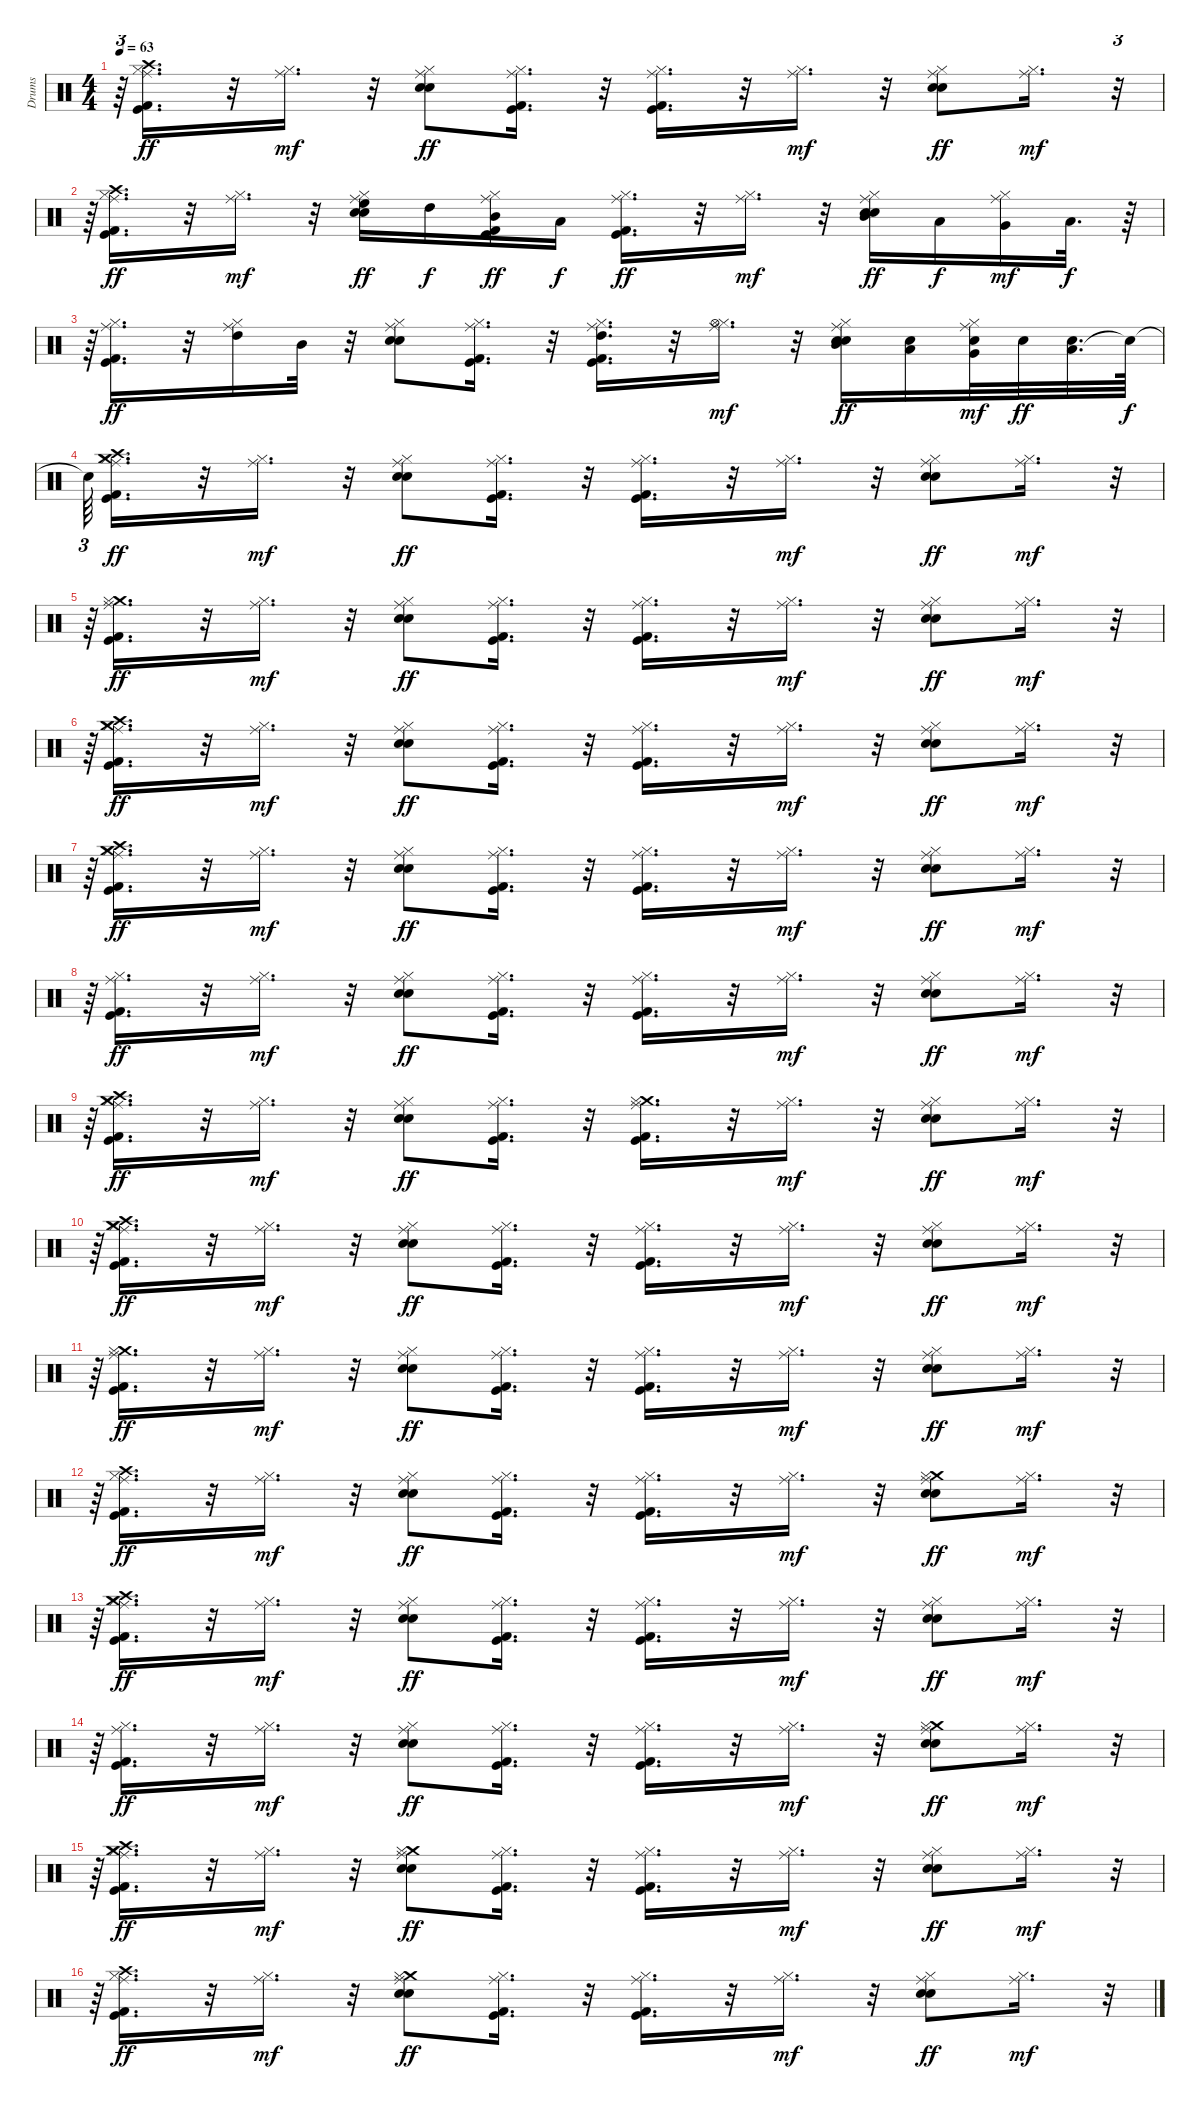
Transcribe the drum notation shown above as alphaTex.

\track ("Drums" "Drums") {instrument percussion}
\staff {score}
\articulation defaults
\ts (4 4)
\tempo 63
\clef neutral
\ks c
r.64{tu (3 2) dy mf} ("Hi-Hat (closed)" "Kick (hit) 2" "Crash high (hit)" "Ride (middle)" "Kick (hit)").16{d dy ff} r.32 ("Hi-Hat (closed)" "Ride (middle)").16{d dy mf} r.32 ("Snare (hit) 2" "Hi-Hat (closed)" "Ride (middle)" "Snare (hit) 2").8{dy ff} ("Hi-Hat (closed)" "Kick (hit) 2" "Ride (middle)" "Kick (hit)").16{d} r.32 ("Hi-Hat (closed)" "Kick (hit) 2" "Ride (middle)" "Kick (hit)").16{d} r.32 ("Hi-Hat (closed)" "Ride (middle)").16{d dy mf} r.32 ("Snare (hit) 2" "Hi-Hat (closed)" "Ride (middle)" "Snare (hit) 2").8{dy ff} ("Hi-Hat (closed)" "Ride (middle)").16{d dy mf} r.32{tu (3 2)} |
r.64{tu (3 2)} ("Hi-Hat (closed)" "Kick (hit) 2" "Crash high (hit)" "Ride (middle)" "Kick (hit)").16{d dy ff} r.32 ("Hi-Hat (closed)" "Ride (middle)").16{d dy mf} r.32 ("High Floor Tom (hit)" "Snare (hit) 2" "Hi-Hat (closed)" "Ride (middle)" "Snare (hit) 2").16{dy ff} "High Tom (hit)".16{dy f} ("Mid Tom (hit)" "Hi-Hat (closed)" "Kick (hit) 2" "Ride (middle)" "Kick (hit)").16{dy ff} "Low Tom (hit)".16{dy f} ("Hi-Hat (closed)" "Kick (hit) 2" "Ride (middle)" "Kick (hit)").16{d dy ff} r.32 ("Hi-Hat (closed)" "Ride (middle)").16{d dy mf} r.32 ("Mid Tom (hit)" "Snare (hit) 2" "Hi-Hat (closed)" "Ride (middle)" "Snare (hit) 2").16{dy ff} "Low Tom (hit)".16{dy f} ("Very Low Tom (hit)" "Hi-Hat (closed)" "Ride (middle)").16{dy mf} "Low Floor Tom (hit)".32{d dy f} r.64 |
r.64{tu (3 2)} ("Hi-Hat (closed)" "Kick (hit) 2" "Ride (middle)" "Kick (hit)").16{d dy ff} r.32 ("Hi-Hat (closed)" "Ride (middle)" "High Tom (hit)").16 "Mid Tom (hit)".32 r.32 ("Snare (hit) 2" "Hi-Hat (closed)" "Ride (middle)" "Snare (hit) 2").8 ("Hi-Hat (closed)" "Kick (hit) 2" "Ride (middle)" "Kick (hit)").16{d} r.32 ("High Tom (hit)" "Hi-Hat (closed)" "Kick (hit) 2" "Ride (middle)" "Kick (hit)").16{d} r.32 ("Hi-Hat (closed)" "Hi-Hat (open)" "Ride (middle)").16{d dy mf} r.32 ("Mid Tom (hit)" "Snare (hit) 2" "Hi-Hat (closed)" "Ride (middle)" "Snare (hit) 2").16{dy ff} ("Low Tom (hit)" "Snare (hit) 2").16 ("Very Low Tom (hit)" "Hi-Hat (closed)" "Snare (hit) 2" "Ride (middle)").32{dy mf} "Snare (hit) 2".32{dy ff} ("Low Floor Tom (hit)" "Snare (hit) 2").32{d} "Snare (hit)"{t}.64{dy f} |
"Snare (hit)"{t}.64{tu (3 2)} ("Crash medium (hit)" "Hi-Hat (closed)" "Kick (hit) 2" "Crash high (hit)" "Ride (middle)" "Kick (hit)").16{d dy ff} r.32 ("Hi-Hat (closed)" "Ride (middle)").16{d dy mf} r.32 ("Snare (hit) 2" "Hi-Hat (closed)" "Ride (middle)" "Snare (hit) 2").8{dy ff} ("Hi-Hat (closed)" "Kick (hit) 2" "Ride (middle)" "Kick (hit)").16{d} r.32 ("Hi-Hat (closed)" "Kick (hit) 2" "Ride (middle)" "Kick (hit)").16{d} r.32 ("Hi-Hat (closed)" "Ride (middle)").16{d dy mf} r.32 ("Snare (hit) 2" "Hi-Hat (closed)" "Ride (middle)" "Snare (hit) 2").8{dy ff} ("Hi-Hat (closed)" "Ride (middle)").16{d dy mf} r.32{tu (3 2)} |
r.64{tu (3 2)} ("Crash medium (hit)" "Hi-Hat (closed)" "Kick (hit) 2" "Ride (middle)" "Kick (hit)").16{d dy ff} r.32 ("Hi-Hat (closed)" "Ride (middle)").16{d dy mf} r.32 ("Snare (hit) 2" "Hi-Hat (closed)" "Ride (middle)" "Snare (hit) 2").8{dy ff} ("Hi-Hat (closed)" "Kick (hit) 2" "Ride (middle)" "Kick (hit)").16{d} r.32 ("Hi-Hat (closed)" "Kick (hit) 2" "Ride (middle)" "Kick (hit)").16{d} r.32 ("Hi-Hat (closed)" "Ride (middle)").16{d dy mf} r.32 ("Snare (hit) 2" "Hi-Hat (closed)" "Ride (middle)" "Snare (hit) 2").8{dy ff} ("Hi-Hat (closed)" "Ride (middle)").16{d dy mf} r.32{tu (3 2)} |
r.64{tu (3 2)} ("Crash medium (hit)" "Hi-Hat (closed)" "Kick (hit) 2" "Ride (middle)" "Kick (hit)" "Crash high (hit)").16{d dy ff} r.32 ("Hi-Hat (closed)" "Ride (middle)").16{d dy mf} r.32 ("Snare (hit) 2" "Hi-Hat (closed)" "Ride (middle)" "Snare (hit) 2").8{dy ff} ("Hi-Hat (closed)" "Kick (hit) 2" "Ride (middle)" "Kick (hit)").16{d} r.32 ("Hi-Hat (closed)" "Kick (hit) 2" "Ride (middle)" "Kick (hit)").16{d} r.32 ("Hi-Hat (closed)" "Ride (middle)").16{d dy mf} r.32 ("Snare (hit) 2" "Hi-Hat (closed)" "Ride (middle)" "Snare (hit) 2").8{dy ff} ("Hi-Hat (closed)" "Ride (middle)").16{d dy mf} r.32{tu (3 2)} |
r.64{tu (3 2)} ("Crash medium (hit)" "Hi-Hat (closed)" "Kick (hit) 2" "Crash high (hit)" "Ride (middle)" "Kick (hit)").16{d dy ff} r.32 ("Hi-Hat (closed)" "Ride (middle)").16{d dy mf} r.32 ("Snare (hit) 2" "Hi-Hat (closed)" "Ride (middle)" "Snare (hit) 2").8{dy ff} ("Hi-Hat (closed)" "Kick (hit) 2" "Ride (middle)" "Kick (hit)").16{d} r.32 ("Hi-Hat (closed)" "Kick (hit) 2" "Ride (middle)" "Kick (hit)").16{d} r.32 ("Hi-Hat (closed)" "Ride (middle)").16{d dy mf} r.32 ("Snare (hit) 2" "Hi-Hat (closed)" "Ride (middle)" "Snare (hit) 2").8{dy ff} ("Hi-Hat (closed)" "Ride (middle)").16{d dy mf} r.32{tu (3 2)} |
r.64{tu (3 2)} ("Hi-Hat (closed)" "Kick (hit) 2" "Ride (middle)" "Kick (hit)").16{d dy ff} r.32 ("Hi-Hat (closed)" "Ride (middle)").16{d dy mf} r.32 ("Snare (hit) 2" "Hi-Hat (closed)" "Ride (middle)" "Snare (hit) 2").8{dy ff} ("Hi-Hat (closed)" "Kick (hit) 2" "Ride (middle)" "Kick (hit)").16{d} r.32 ("Hi-Hat (closed)" "Kick (hit) 2" "Ride (middle)" "Kick (hit)").16{d} r.32 ("Hi-Hat (closed)" "Ride (middle)").16{d dy mf} r.32 ("Snare (hit) 2" "Hi-Hat (closed)" "Ride (middle)" "Snare (hit) 2").8{dy ff} ("Hi-Hat (closed)" "Ride (middle)").16{d dy mf} r.32{tu (3 2)} |
r.64{tu (3 2)} ("Crash medium (hit)" "Hi-Hat (closed)" "Kick (hit) 2" "Crash high (hit)" "Ride (middle)" "Kick (hit)").16{d dy ff} r.32 ("Hi-Hat (closed)" "Ride (middle)").16{d dy mf} r.32 ("Snare (hit) 2" "Hi-Hat (closed)" "Ride (middle)" "Snare (hit) 2").8{dy ff} ("Hi-Hat (closed)" "Kick (hit) 2" "Ride (middle)" "Kick (hit)").16{d} r.32 ("Crash medium (hit)" "Hi-Hat (closed)" "Kick (hit) 2" "Ride (middle)" "Kick (hit)").16{d} r.32 ("Hi-Hat (closed)" "Ride (middle)").16{d dy mf} r.32 ("Snare (hit) 2" "Hi-Hat (closed)" "Ride (middle)" "Snare (hit) 2").8{dy ff} ("Hi-Hat (closed)" "Ride (middle)").16{d dy mf} r.32{tu (3 2)} |
r.64{tu (3 2)} ("Crash medium (hit)" "Hi-Hat (closed)" "Kick (hit) 2" "Crash high (hit)" "Ride (middle)" "Kick (hit)").16{d dy ff} r.32 ("Hi-Hat (closed)" "Ride (middle)").16{d dy mf} r.32 ("Snare (hit) 2" "Hi-Hat (closed)" "Ride (middle)" "Snare (hit) 2").8{dy ff} ("Hi-Hat (closed)" "Kick (hit) 2" "Ride (middle)" "Kick (hit)").16{d} r.32 ("Hi-Hat (closed)" "Kick (hit) 2" "Ride (middle)" "Kick (hit)").16{d} r.32 ("Hi-Hat (closed)" "Ride (middle)").16{d dy mf} r.32 ("Snare (hit) 2" "Hi-Hat (closed)" "Ride (middle)" "Snare (hit) 2").8{dy ff} ("Hi-Hat (closed)" "Ride (middle)").16{d dy mf} r.32{tu (3 2)} |
r.64{tu (3 2)} ("Crash medium (hit)" "Hi-Hat (closed)" "Kick (hit) 2" "Ride (middle)" "Kick (hit)").16{d dy ff} r.32 ("Hi-Hat (closed)" "Ride (middle)").16{d dy mf} r.32 ("Snare (hit) 2" "Hi-Hat (closed)" "Ride (middle)" "Snare (hit) 2").8{dy ff} ("Hi-Hat (closed)" "Kick (hit) 2" "Ride (middle)" "Kick (hit)").16{d} r.32 ("Hi-Hat (closed)" "Kick (hit) 2" "Ride (middle)" "Kick (hit)").16{d} r.32 ("Hi-Hat (closed)" "Ride (middle)").16{d dy mf} r.32 ("Snare (hit) 2" "Hi-Hat (closed)" "Ride (middle)" "Snare (hit) 2").8{dy ff} ("Hi-Hat (closed)" "Ride (middle)").16{d dy mf} r.32{tu (3 2)} |
r.64{tu (3 2)} ("Hi-Hat (closed)" "Kick (hit) 2" "Ride (middle)" "Kick (hit)" "Crash high (hit)").16{d dy ff} r.32 ("Hi-Hat (closed)" "Ride (middle)").16{d dy mf} r.32 ("Snare (hit) 2" "Hi-Hat (closed)" "Ride (middle)" "Snare (hit) 2").8{dy ff} ("Hi-Hat (closed)" "Kick (hit) 2" "Ride (middle)" "Kick (hit)").16{d} r.32 ("Hi-Hat (closed)" "Kick (hit) 2" "Ride (middle)" "Kick (hit)").16{d} r.32 ("Hi-Hat (closed)" "Ride (middle)").16{d dy mf} r.32 ("Crash medium (hit)" "Snare (hit) 2" "Hi-Hat (closed)" "Ride (middle)" "Snare (hit) 2").8{dy ff} ("Hi-Hat (closed)" "Ride (middle)").16{d dy mf} r.32{tu (3 2)} |
r.64{tu (3 2)} ("Crash medium (hit)" "Hi-Hat (closed)" "Kick (hit) 2" "Crash high (hit)" "Ride (middle)" "Kick (hit)").16{d dy ff} r.32 ("Hi-Hat (closed)" "Ride (middle)").16{d dy mf} r.32 ("Snare (hit) 2" "Hi-Hat (closed)" "Ride (middle)" "Snare (hit) 2").8{dy ff} ("Hi-Hat (closed)" "Kick (hit) 2" "Ride (middle)" "Kick (hit)").16{d} r.32 ("Hi-Hat (closed)" "Kick (hit) 2" "Ride (middle)" "Kick (hit)").16{d} r.32 ("Hi-Hat (closed)" "Ride (middle)").16{d dy mf} r.32 ("Snare (hit) 2" "Hi-Hat (closed)" "Ride (middle)" "Snare (hit) 2").8{dy ff} ("Hi-Hat (closed)" "Ride (middle)").16{d dy mf} r.32{tu (3 2)} |
r.64{tu (3 2)} ("Hi-Hat (closed)" "Kick (hit) 2" "Ride (middle)" "Kick (hit)").16{d dy ff} r.32 ("Hi-Hat (closed)" "Ride (middle)").16{d dy mf} r.32 ("Snare (hit) 2" "Hi-Hat (closed)" "Ride (middle)" "Snare (hit) 2").8{dy ff} ("Hi-Hat (closed)" "Kick (hit) 2" "Ride (middle)" "Kick (hit)").16{d} r.32 ("Hi-Hat (closed)" "Kick (hit) 2" "Ride (middle)" "Kick (hit)").16{d} r.32 ("Hi-Hat (closed)" "Ride (middle)").16{d dy mf} r.32 ("Crash medium (hit)" "Snare (hit) 2" "Hi-Hat (closed)" "Ride (middle)" "Snare (hit) 2").8{dy ff} ("Hi-Hat (closed)" "Ride (middle)").16{d dy mf} r.32{tu (3 2)} |
r.64{tu (3 2)} ("Crash medium (hit)" "Hi-Hat (closed)" "Kick (hit) 2" "Crash high (hit)" "Ride (middle)" "Kick (hit)").16{d dy ff} r.32 ("Hi-Hat (closed)" "Ride (middle)").16{d dy mf} r.32 ("Crash medium (hit)" "Snare (hit) 2" "Hi-Hat (closed)" "Ride (middle)" "Snare (hit) 2").8{dy ff} ("Hi-Hat (closed)" "Kick (hit) 2" "Ride (middle)" "Kick (hit)").16{d} r.32 ("Hi-Hat (closed)" "Kick (hit) 2" "Ride (middle)" "Kick (hit)").16{d} r.32 ("Hi-Hat (closed)" "Ride (middle)").16{d dy mf} r.32 ("Snare (hit) 2" "Hi-Hat (closed)" "Ride (middle)" "Snare (hit) 2").8{dy ff} ("Hi-Hat (closed)" "Ride (middle)").16{d dy mf} r.32{tu (3 2)} |
r.64{tu (3 2)} ("Hi-Hat (closed)" "Kick (hit) 2" "Crash high (hit)" "Ride (middle)" "Kick (hit)").16{d dy ff} r.32 ("Hi-Hat (closed)" "Ride (middle)").16{d dy mf} r.32 ("Crash medium (hit)" "Snare (hit) 2" "Hi-Hat (closed)" "Ride (middle)" "Snare (hit) 2").8{dy ff} ("Hi-Hat (closed)" "Kick (hit) 2" "Ride (middle)" "Kick (hit)").16{d} r.32 ("Hi-Hat (closed)" "Kick (hit) 2" "Ride (middle)" "Kick (hit)").16{d} r.32 ("Hi-Hat (closed)" "Ride (middle)").16{d dy mf} r.32 ("Snare (hit) 2" "Hi-Hat (closed)" "Ride (middle)" "Snare (hit) 2").8{dy ff} ("Hi-Hat (closed)" "Ride (middle)").16{d dy mf} r.32{tu (3 2)}
